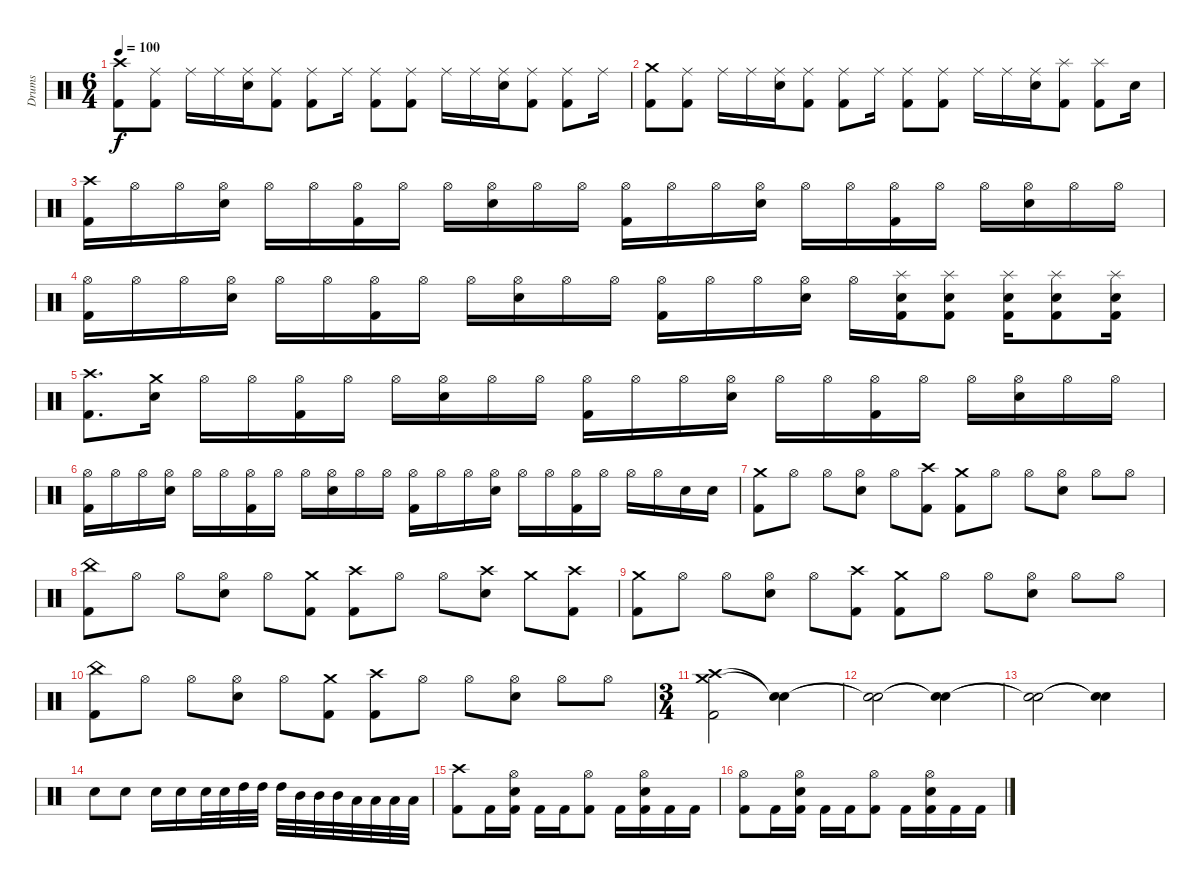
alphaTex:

\track ("Drums" "Drums") {instrument percussion}
\staff {score}
\articulation defaults
\ts (6 4)
\tempo 100
\clef neutral
\ks c
("Crash high (hit)" "Kick (hit) 2").8{dy f} ("Ride (middle)" "Kick (hit) 2").8 "Ride (middle)".16 "Ride (middle)".16 ("Ride (middle)" "Electric Snare (hit)").16 ("Ride (middle)" "Kick (hit) 2").8 ("Ride (middle)" "Kick (hit) 2").8 "Ride (middle)".16 ("Ride (middle)" "Kick (hit) 2").8 ("Ride (middle)" "Kick (hit) 2").8 "Ride (middle)".16 "Ride (middle)".16 ("Ride (middle)" "Electric Snare (hit)").16 ("Ride (middle)" "Kick (hit) 2").8 ("Ride (middle)" "Kick (hit) 2").8 "Ride (middle)".16 |
("Crash medium (hit)" "Kick (hit) 2").8 ("Ride (middle)" "Kick (hit) 2").8 "Ride (middle)".16 "Ride (middle)".16 ("Ride (middle)" "Electric Snare (hit)").16 ("Ride (middle)" "Kick (hit) 2").8 ("Ride (middle)" "Kick (hit) 2").8 "Ride (middle)".16 ("Ride (middle)" "Kick (hit) 2").8 ("Ride (middle)" "Kick (hit) 2").8 "Ride (middle)".16 "Ride (middle)".16 ("Ride (middle)" "Electric Snare (hit)").16 ("Splash (hit)" "Kick (hit) 2").8 ("Splash (hit)" "Kick (hit) 2").8 "Electric Snare (hit)".16 |
("Crash high (hit)" "Kick (hit) 2").16 "Hi-Hat (open)".16 "Hi-Hat (open)".16 ("Hi-Hat (open)" "Electric Snare (hit)").16 "Hi-Hat (open)".16 "Hi-Hat (open)".16 ("Hi-Hat (open)" "Kick (hit) 2").16 "Hi-Hat (open)".16 "Hi-Hat (open)".16 ("Hi-Hat (open)" "Electric Snare (hit)").16 "Hi-Hat (open)".16 "Hi-Hat (open)".16 ("Hi-Hat (open)" "Kick (hit) 2").16 "Hi-Hat (open)".16 "Hi-Hat (open)".16 ("Hi-Hat (open)" "Electric Snare (hit)").16 "Hi-Hat (open)".16 "Hi-Hat (open)".16 ("Hi-Hat (open)" "Kick (hit) 2").16 "Hi-Hat (open)".16 "Hi-Hat (open)".16 ("Hi-Hat (open)" "Electric Snare (hit)").16 "Hi-Hat (open)".16 "Hi-Hat (open)".16 |
("Hi-Hat (open)" "Kick (hit) 2").16 "Hi-Hat (open)".16 "Hi-Hat (open)".16 ("Hi-Hat (open)" "Electric Snare (hit)").16 "Hi-Hat (open)".16 "Hi-Hat (open)".16 ("Hi-Hat (open)" "Kick (hit) 2").16 "Hi-Hat (open)".16 "Hi-Hat (open)".16 ("Hi-Hat (open)" "Electric Snare (hit)").16 "Hi-Hat (open)".16 "Hi-Hat (open)".16 ("Hi-Hat (open)" "Kick (hit) 2").16 "Hi-Hat (open)".16 "Hi-Hat (open)".16 ("Hi-Hat (open)" "Electric Snare (hit)").16 "Hi-Hat (open)".16 ("Splash (hit)" "Electric Snare (hit)" "Kick (hit) 2").16 ("Splash (hit)" "Electric Snare (hit)" "Kick (hit) 2").8 ("Splash (hit)" "Electric Snare (hit)" "Kick (hit) 2").16 ("Splash (hit)" "Electric Snare (hit)" "Kick (hit) 2").8 ("Splash (hit)" "Electric Snare (hit)" "Kick (hit) 2").16 |
("Crash high (hit)" "Kick (hit) 2").8{d} ("Crash medium (hit)" "Electric Snare (hit)").16 "Hi-Hat (open)".16 "Hi-Hat (open)".16 ("Hi-Hat (open)" "Kick (hit) 2").16 "Hi-Hat (open)".16 "Hi-Hat (open)".16 ("Hi-Hat (open)" "Electric Snare (hit)").16 "Hi-Hat (open)".16 "Hi-Hat (open)".16 ("Hi-Hat (open)" "Kick (hit) 2").16 "Hi-Hat (open)".16 "Hi-Hat (open)".16 ("Hi-Hat (open)" "Electric Snare (hit)").16 "Hi-Hat (open)".16 "Hi-Hat (open)".16 ("Hi-Hat (open)" "Kick (hit) 2").16 "Hi-Hat (open)".16 "Hi-Hat (open)".16 ("Hi-Hat (open)" "Electric Snare (hit)").16 "Hi-Hat (open)".16 "Hi-Hat (open)".16 |
("Hi-Hat (open)" "Kick (hit) 2").16 "Hi-Hat (open)".16 "Hi-Hat (open)".16 ("Hi-Hat (open)" "Electric Snare (hit)").16 "Hi-Hat (open)".16 "Hi-Hat (open)".16 ("Hi-Hat (open)" "Kick (hit) 2").16 "Hi-Hat (open)".16 "Hi-Hat (open)".16 ("Hi-Hat (open)" "Electric Snare (hit)").16 "Hi-Hat (open)".16 "Hi-Hat (open)".16 ("Hi-Hat (open)" "Kick (hit) 2").16 "Hi-Hat (open)".16 "Hi-Hat (open)".16 ("Hi-Hat (open)" "Electric Snare (hit)").16 "Hi-Hat (open)".16 "Hi-Hat (open)".16 ("Hi-Hat (open)" "Kick (hit) 2").16 "Hi-Hat (open)".16 "Hi-Hat (open)".16 "Hi-Hat (open)".16 "Electric Snare (hit)".16 "Electric Snare (hit)".16 |
("Crash medium (hit)" "Kick (hit) 2").8 "Hi-Hat (open)".8 "Hi-Hat (open)".8 ("Hi-Hat (open)" "Electric Snare (hit)").8 "Hi-Hat (open)".8 ("Crash high (hit)" "Kick (hit) 2").8 ("Crash medium (hit)" "Kick (hit) 2").8 "Hi-Hat (open)".8 "Hi-Hat (open)".8 ("Hi-Hat (open)" "Electric Snare (hit)").8 "Hi-Hat (open)".8 "Hi-Hat (open)".8 |
("China (hit)" "Kick (hit) 2").8 "Hi-Hat (open)".8 "Hi-Hat (open)".8 ("Hi-Hat (open)" "Electric Snare (hit)").8 "Hi-Hat (open)".8 ("Crash medium (hit)" "Kick (hit) 2").8 ("Crash high (hit)" "Kick (hit) 2").8 "Hi-Hat (open)".8 "Hi-Hat (open)".8 ("Crash high (hit)" "Electric Snare (hit)").8 "Crash medium (hit)".8 ("Crash high (hit)" "Kick (hit) 2").8 |
("Crash medium (hit)" "Kick (hit) 2").8 "Hi-Hat (open)".8 "Hi-Hat (open)".8 ("Hi-Hat (open)" "Electric Snare (hit)").8 "Hi-Hat (open)".8 ("Crash high (hit)" "Kick (hit) 2").8 ("Crash medium (hit)" "Kick (hit) 2").8 "Hi-Hat (open)".8 "Hi-Hat (open)".8 ("Hi-Hat (open)" "Electric Snare (hit)").8 "Hi-Hat (open)".8 "Hi-Hat (open)".8 |
("China (hit)" "Kick (hit) 2").8 "Hi-Hat (open)".8 "Hi-Hat (open)".8 ("Hi-Hat (open)" "Electric Snare (hit)").8 "Hi-Hat (open)".8 ("Crash medium (hit)" "Kick (hit) 2").8 ("Crash high (hit)" "Kick (hit) 2").8 "Hi-Hat (open)".8 "Hi-Hat (open)".8 ("Hi-Hat (open)" "Electric Snare (hit)").8 "Hi-Hat (open)".8 "Hi-Hat (open)".8 |
\ts (3 4)
("Crash medium (hit)" "Crash high (hit)" "Kick (hit) 2").2 ("Snare (hit)"{t} "Snare (hit)"{t}).4 |
("Snare (hit)"{t} "Snare (hit)"{t}).2 ("Snare (hit)"{t} "Snare (hit)"{t}).4 |
("Snare (hit)"{t} "Snare (hit)"{t}).2 ("Snare (hit)"{t} "Snare (hit)"{t}).4 |
"Electric Snare (hit)".8 "Electric Snare (hit)".8 "Electric Snare (hit)".16 "Electric Snare (hit)".16 "Electric Snare (hit)".32 "Electric Snare (hit)".32 "High Tom (hit)".32 "High Tom (hit)".32 "High Tom (hit)".32 "Mid Tom (hit)".32 "Mid Tom (hit)".32 "Mid Tom (hit)".32 "Low Tom (hit)".32 "Low Tom (hit)".32 "Low Tom (hit)".32 "Low Tom (hit)".32 |
("Crash high (hit)" "Kick (hit) 2").8 "Kick (hit) 2".16 ("Hi-Hat (open)" "Electric Snare (hit)" "Kick (hit) 2").16 "Kick (hit) 2".16 "Kick (hit) 2".16 ("Hi-Hat (open)" "Kick (hit) 2").8 "Kick (hit) 2".16 ("Hi-Hat (open)" "Electric Snare (hit)" "Kick (hit) 2").16 "Kick (hit) 2".16 "Kick (hit) 2".16 |
("Hi-Hat (open)" "Kick (hit) 2").8 "Kick (hit) 2".16 ("Hi-Hat (open)" "Electric Snare (hit)" "Kick (hit) 2").16 "Kick (hit) 2".16 "Kick (hit) 2".16 ("Hi-Hat (open)" "Kick (hit) 2").8 "Kick (hit) 2".16 ("Hi-Hat (open)" "Electric Snare (hit)" "Kick (hit) 2").16 "Kick (hit) 2".16 "Kick (hit) 2".16
